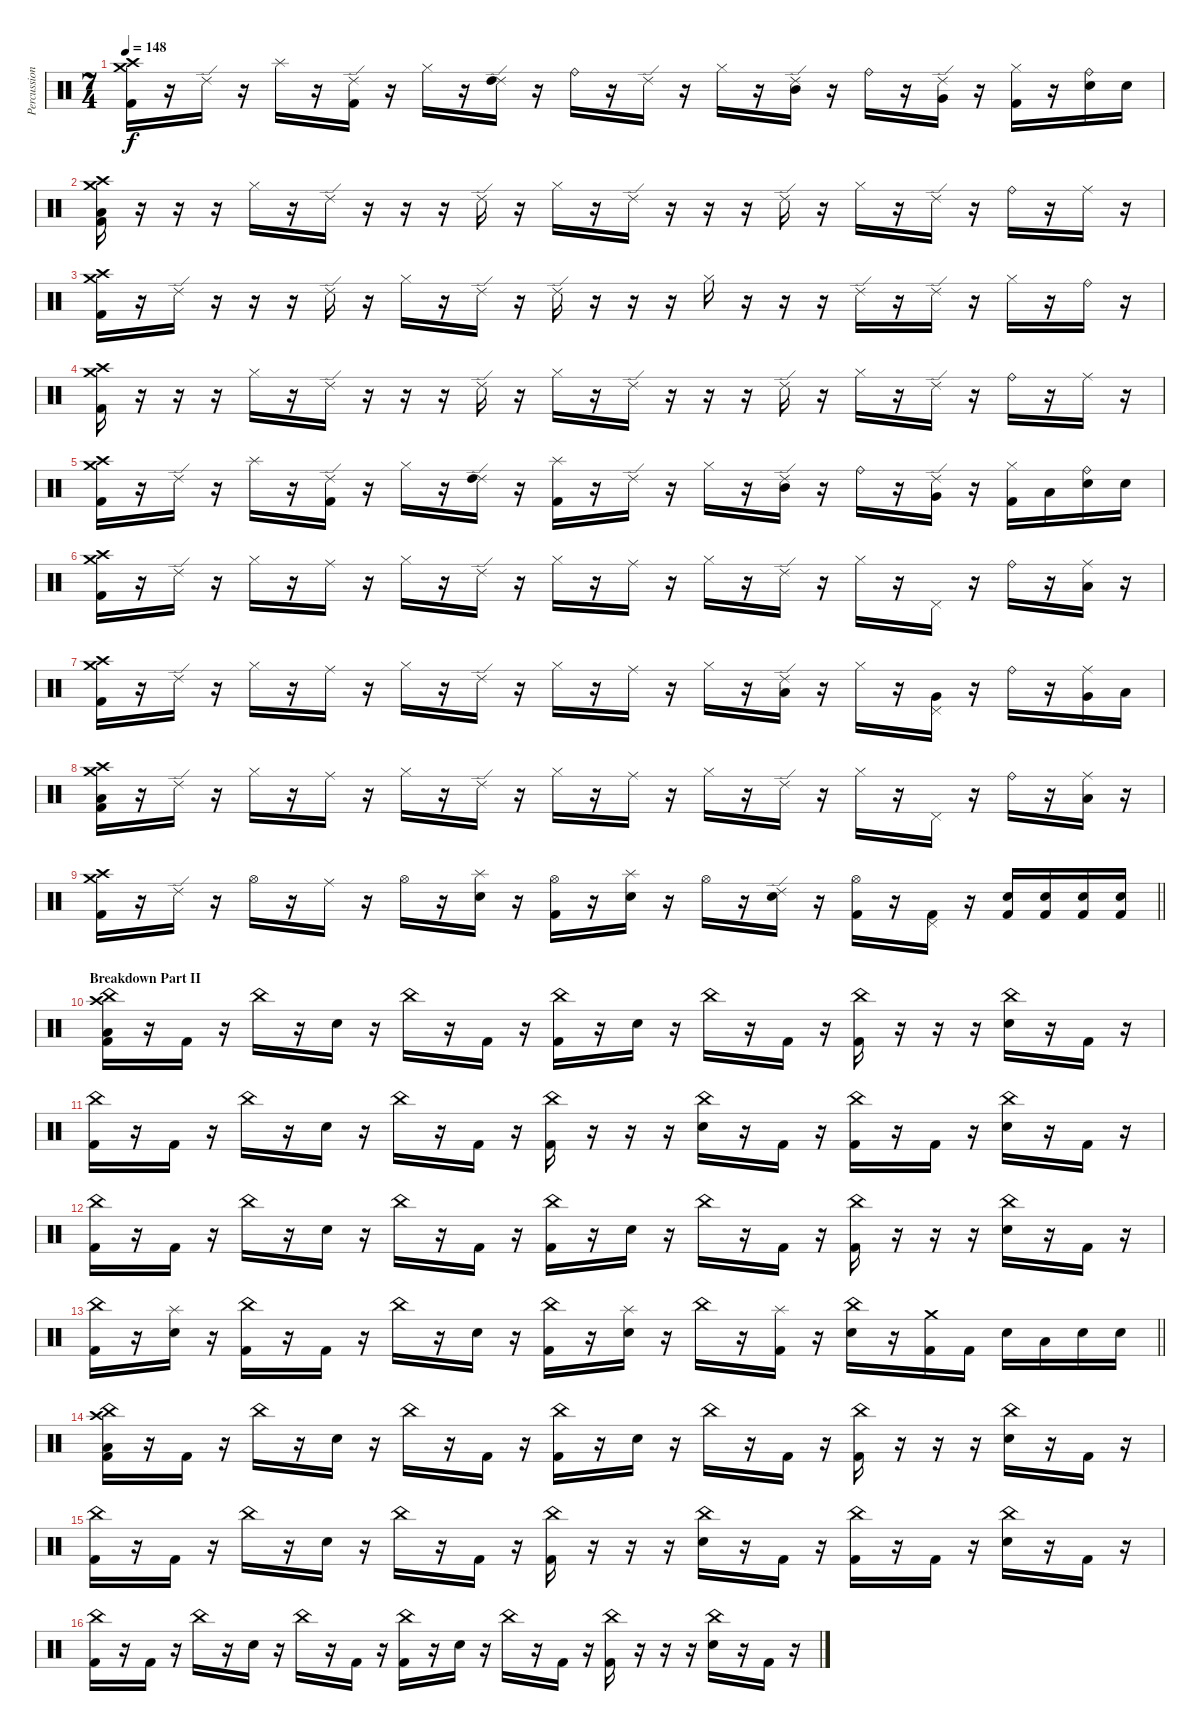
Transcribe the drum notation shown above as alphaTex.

\track ("Percussion" "Percussion") {instrument percussion}
\staff {score}
\articulation defaults
\ts (7 4)
\tempo 148
\clef neutral
\ks c
("Crash high (hit)" "Crash medium (hit)" "Kick (hit) 2").16{dy f} r.16 "Ride (edge) 2".16 r.16 "Splash (hit)".16 r.16 ("Ride (edge) 2" "Kick (hit) 2").16 r.16 "Hi-Hat (closed)".16 r.16 ("Ride (edge) 2" "High Tom (hit)").16 r.16 "Ride (bell)".16 r.16 "Ride (edge) 2".16 r.16 "Hi-Hat (closed)".16 r.16 ("Ride (edge) 2" "Mid Tom (hit)").16 r.16 "Ride (bell)".16 r.16 ("Ride (edge) 2" "Very Low Tom (hit)").16 r.16 ("Hi-Hat (closed)" "Kick (hit) 2").16 r.16 ("Ride (bell)" "Electric Snare (hit)").16 "Electric Snare (hit)".16 |
("Crash high (hit)" "Crash medium (hit)" "Low Floor Tom (hit)" "Kick (hit) 2").16 r.16 r.16 r.16 "Hi-Hat (closed)".16 r.16 "Ride (edge) 2".16 r.16 r.16 r.16 "Ride (edge) 2".16 r.16 "Hi-Hat (closed)".16 r.16 "Ride (edge) 2".16 r.16 r.16 r.16 "Ride (edge) 2".16 r.16 "Hi-Hat (closed)".16 r.16 "Ride (edge) 2".16 r.16 "Ride (bell)".16 r.16 "Ride (middle)".16 r.16 |
("Crash high (hit)" "Crash medium (hit)" "Kick (hit) 2").16 r.16 "Ride (edge) 2".16 r.16 r.16 r.16 "Ride (edge) 2".16 r.16 "Hi-Hat (closed)".16 r.16 "Ride (edge) 2".16 r.16 "Ride (edge) 2".16 r.16 r.16 r.16 "Hi-Hat (closed)".16 r.16 r.16 r.16 "Ride (edge) 2".16 r.16 "Ride (edge) 2".16 r.16 "Hi-Hat (closed)".16 r.16 "Ride (bell)".16 r.16 |
("Crash high (hit)" "Crash medium (hit)" "Kick (hit) 2").16 r.16 r.16 r.16 "Hi-Hat (closed)".16 r.16 "Ride (edge) 2".16 r.16 r.16 r.16 "Ride (edge) 2".16 r.16 "Hi-Hat (closed)".16 r.16 "Ride (edge) 2".16 r.16 r.16 r.16 "Ride (edge) 2".16 r.16 "Hi-Hat (closed)".16 r.16 "Ride (edge) 2".16 r.16 "Ride (bell)".16 r.16 "Ride (middle)".16 r.16 |
("Crash high (hit)" "Crash medium (hit)" "Kick (hit) 2").16 r.16 "Ride (edge) 2".16 r.16 "Splash (hit)".16 r.16 ("Ride (edge) 2" "Kick (hit) 2").16 r.16 "Hi-Hat (closed)".16 r.16 ("Ride (edge) 2" "High Tom (hit)").16 r.16 ("Splash (hit)" "Kick (hit) 2").16 r.16 "Ride (edge) 2".16 r.16 "Hi-Hat (closed)".16 r.16 ("Ride (edge) 2" "Mid Tom (hit)").16 r.16 "Ride (bell)".16 r.16 ("Ride (edge) 2" "Very Low Tom (hit)").16 r.16 ("Hi-Hat (closed)" "Kick (hit) 2").16 "Low Tom (hit)".16 ("Ride (bell)" "Electric Snare (hit)").16 "Electric Snare (hit)".16 |
("Crash high (hit)" "Crash medium (hit)" "Kick (hit) 2").16 r.16 "Ride (edge) 2".16 r.16 "Hi-Hat (closed)".16 r.16 "Ride (middle)".16 r.16 "Hi-Hat (closed)".16 r.16 "Ride (edge) 2".16 r.16 "Hi-Hat (closed)".16 r.16 "Ride (middle)".16 r.16 "Hi-Hat (closed)".16 r.16 "Ride (edge) 2".16 r.16 "Hi-Hat (closed)".16 r.16 "Pedal Hi-Hat (hit)".16 r.16 "Ride (bell)".16 r.16 ("Ride (middle)" "Low Floor Tom (hit)").16 r.16 |
("Crash high (hit)" "Crash medium (hit)" "Kick (hit) 2").16 r.16 "Ride (edge) 2".16 r.16 "Hi-Hat (closed)".16 r.16 "Ride (middle)".16 r.16 "Hi-Hat (closed)".16 r.16 "Ride (edge) 2".16 r.16 "Hi-Hat (closed)".16 r.16 "Ride (middle)".16 r.16 "Hi-Hat (closed)".16 r.16 ("Ride (edge) 2" "Low Tom (hit)").16 r.16 "Hi-Hat (closed)".16 r.16 ("Pedal Hi-Hat (hit)" "Very Low Tom (hit)").16 r.16 "Ride (bell)".16 r.16 ("Ride (middle)" "Very Low Tom (hit)").16 "Low Floor Tom (hit)".16 |
("Crash high (hit)" "Crash medium (hit)" "Low Floor Tom (hit)" "Kick (hit) 2").16 r.16 "Ride (edge) 2".16 r.16 "Hi-Hat (closed)".16 r.16 "Ride (middle)".16 r.16 "Hi-Hat (closed)".16 r.16 "Ride (edge) 2".16 r.16 "Hi-Hat (closed)".16 r.16 "Ride (middle)".16 r.16 "Hi-Hat (closed)".16 r.16 "Ride (edge) 2".16 r.16 "Hi-Hat (closed)".16 r.16 "Pedal Hi-Hat (hit)".16 r.16 "Ride (bell)".16 r.16 ("Ride (middle)" "Low Floor Tom (hit)").16 r.16 |
\barLineRight lightlight
("Crash high (hit)" "Crash medium (hit)" "Kick (hit) 2").16 r.16 "Ride (edge) 2".16 r.16 "Hi-Hat (open)".16 r.16 "Ride (middle)".16 r.16 "Hi-Hat (open)".16 r.16 ("Splash (hit)" "Electric Snare (hit)").16 r.16 ("Hi-Hat (open)" "Kick (hit) 2").16 r.16 ("Splash (hit)" "Electric Snare (hit)").16 r.16 "Hi-Hat (open)".16 r.16 ("Ride (edge) 2" "Electric Snare (hit)").16 r.16 ("Hi-Hat (open)" "Kick (hit) 2").16 r.16 ("Pedal Hi-Hat (hit)" "Kick (hit) 2").16 r.16 ("Electric Snare (hit)" "Kick (hit) 2").16 ("Electric Snare (hit)" "Kick (hit) 2").16 ("Electric Snare (hit)" "Kick (hit) 2").16 ("Electric Snare (hit)" "Kick (hit) 2").16 |
\section ("" "Breakdown Part II")
("Crash high (hit)" "China (hit)" "Low Floor Tom (hit)" "Kick (hit) 2").16 r.16 "Kick (hit) 2".16 r.16 "China (hit)".16 r.16 "Electric Snare (hit)".16 r.16 "China (hit)".16 r.16 "Kick (hit) 2".16 r.16 ("China (hit)" "Kick (hit) 2").16 r.16 "Electric Snare (hit)".16 r.16 "China (hit)".16 r.16 "Kick (hit) 2".16 r.16 ("China (hit)" "Kick (hit) 2").16 r.16 r.16 r.16 ("China (hit)" "Electric Snare (hit)").16 r.16 "Kick (hit) 2".16 r.16 |
("China (hit)" "Kick (hit) 2").16 r.16 "Kick (hit) 2".16 r.16 "China (hit)".16 r.16 "Electric Snare (hit)".16 r.16 "China (hit)".16 r.16 "Kick (hit) 2".16 r.16 ("China (hit)" "Kick (hit) 2").16 r.16 r.16 r.16 ("China (hit)" "Electric Snare (hit)").16 r.16 "Kick (hit) 2".16 r.16 ("China (hit)" "Kick (hit) 2").16 r.16 "Kick (hit) 2".16 r.16 ("China (hit)" "Electric Snare (hit)").16 r.16 "Kick (hit) 2".16 r.16 |
("China (hit)" "Kick (hit) 2").16 r.16 "Kick (hit) 2".16 r.16 "China (hit)".16 r.16 "Electric Snare (hit)".16 r.16 "China (hit)".16 r.16 "Kick (hit) 2".16 r.16 ("China (hit)" "Kick (hit) 2").16 r.16 "Electric Snare (hit)".16 r.16 "China (hit)".16 r.16 "Kick (hit) 2".16 r.16 ("China (hit)" "Kick (hit) 2").16 r.16 r.16 r.16 ("China (hit)" "Electric Snare (hit)").16 r.16 "Kick (hit) 2".16 r.16 |
\barLineRight lightlight
("China (hit)" "Kick (hit) 2").16 r.16 ("Splash (hit)" "Electric Snare (hit)").16 r.16 ("China (hit)" "Kick (hit) 2").16 r.16 "Kick (hit) 2".16 r.16 "China (hit)".16 r.16 "Electric Snare (hit)".16 r.16 ("China (hit)" "Kick (hit) 2").16 r.16 ("Splash (hit)" "Electric Snare (hit)").16 r.16 "China (hit)".16 r.16 ("Splash (hit)" "Kick (hit) 2").16 r.16 ("China (hit)" "Electric Snare (hit)").16 r.16 ("Crash medium (hit)" "Kick (hit) 2").16 "Kick (hit) 2".16 "Electric Snare (hit)".16 "Low Tom (hit)".16 "Electric Snare (hit)".16 "Electric Snare (hit)".16 |
("Crash high (hit)" "China (hit)" "Low Floor Tom (hit)" "Kick (hit) 2").16 r.16 "Kick (hit) 2".16 r.16 "China (hit)".16 r.16 "Electric Snare (hit)".16 r.16 "China (hit)".16 r.16 "Kick (hit) 2".16 r.16 ("China (hit)" "Kick (hit) 2").16 r.16 "Electric Snare (hit)".16 r.16 "China (hit)".16 r.16 "Kick (hit) 2".16 r.16 ("China (hit)" "Kick (hit) 2").16 r.16 r.16 r.16 ("China (hit)" "Electric Snare (hit)").16 r.16 "Kick (hit) 2".16 r.16 |
("China (hit)" "Kick (hit) 2").16 r.16 "Kick (hit) 2".16 r.16 "China (hit)".16 r.16 "Electric Snare (hit)".16 r.16 "China (hit)".16 r.16 "Kick (hit) 2".16 r.16 ("China (hit)" "Kick (hit) 2").16 r.16 r.16 r.16 ("China (hit)" "Electric Snare (hit)").16 r.16 "Kick (hit) 2".16 r.16 ("China (hit)" "Kick (hit) 2").16 r.16 "Kick (hit) 2".16 r.16 ("China (hit)" "Electric Snare (hit)").16 r.16 "Kick (hit) 2".16 r.16 |
("China (hit)" "Kick (hit) 2").16 r.16 "Kick (hit) 2".16 r.16 "China (hit)".16 r.16 "Electric Snare (hit)".16 r.16 "China (hit)".16 r.16 "Kick (hit) 2".16 r.16 ("China (hit)" "Kick (hit) 2").16 r.16 "Electric Snare (hit)".16 r.16 "China (hit)".16 r.16 "Kick (hit) 2".16 r.16 ("China (hit)" "Kick (hit) 2").16 r.16 r.16 r.16 ("China (hit)" "Electric Snare (hit)").16 r.16 "Kick (hit) 2".16 r.16
